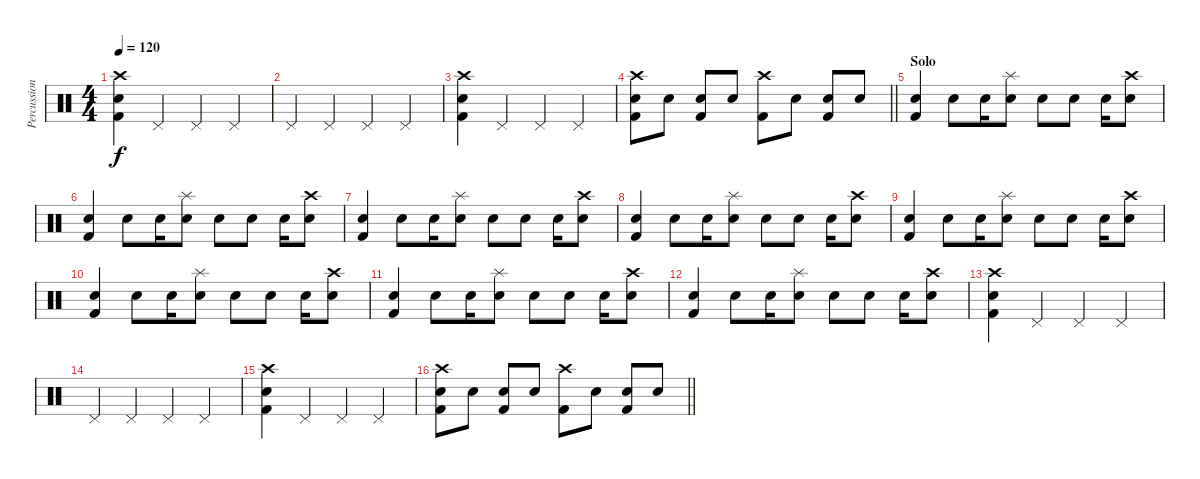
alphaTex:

\track ("Percussion" "Percussion") {instrument percussion}
\staff {score}
\articulation defaults
\ts (4 4)
\tempo 120
\clef neutral
\ks c
("Electric Snare (hit)" "Kick (hit) 2" "Crash high (hit)").4{dy f} "Pedal Hi-Hat (hit)".4 "Pedal Hi-Hat (hit)".4 "Pedal Hi-Hat (hit)".4 |
"Pedal Hi-Hat (hit)".4 "Pedal Hi-Hat (hit)".4 "Pedal Hi-Hat (hit)".4 "Pedal Hi-Hat (hit)".4 |
("Electric Snare (hit)" "Kick (hit) 2" "Crash high (hit)").4 "Pedal Hi-Hat (hit)".4 "Pedal Hi-Hat (hit)".4 "Pedal Hi-Hat (hit)".4 |
\barLineRight lightlight
("Electric Snare (hit)" "Kick (hit) 2" "Crash high (hit)").8 "Electric Snare (hit)".8 ("Electric Snare (hit)" "Kick (hit) 2").8 "Electric Snare (hit)".8 ("Kick (hit) 2" "Crash high (hit)").8 "Electric Snare (hit)".8 ("Electric Snare (hit)" "Kick (hit) 2").8 "Electric Snare (hit)".8 |
\section ("" "Solo")
("Electric Snare (hit)" "Kick (hit) 2").4 "Electric Snare (hit)".8 "Electric Snare (hit)".16 ("Electric Snare (hit)" "Splash (hit)").8 "Electric Snare (hit)".8 "Electric Snare (hit)".8 "Electric Snare (hit)".16 ("Electric Snare (hit)" "Crash high (hit)").8 |
("Electric Snare (hit)" "Kick (hit) 2").4 "Electric Snare (hit)".8 "Electric Snare (hit)".16 ("Electric Snare (hit)" "Splash (hit)").8 "Electric Snare (hit)".8 "Electric Snare (hit)".8 "Electric Snare (hit)".16 ("Electric Snare (hit)" "Crash high (hit)").8 |
("Electric Snare (hit)" "Kick (hit) 2").4 "Electric Snare (hit)".8 "Electric Snare (hit)".16 ("Electric Snare (hit)" "Splash (hit)").8 "Electric Snare (hit)".8 "Electric Snare (hit)".8 "Electric Snare (hit)".16 ("Electric Snare (hit)" "Crash high (hit)").8 |
("Electric Snare (hit)" "Kick (hit) 2").4 "Electric Snare (hit)".8 "Electric Snare (hit)".16 ("Electric Snare (hit)" "Splash (hit)").8 "Electric Snare (hit)".8 "Electric Snare (hit)".8 "Electric Snare (hit)".16 ("Electric Snare (hit)" "Crash high (hit)").8 |
("Electric Snare (hit)" "Kick (hit) 2").4 "Electric Snare (hit)".8 "Electric Snare (hit)".16 ("Electric Snare (hit)" "Splash (hit)").8 "Electric Snare (hit)".8 "Electric Snare (hit)".8 "Electric Snare (hit)".16 ("Electric Snare (hit)" "Crash high (hit)").8 |
("Electric Snare (hit)" "Kick (hit) 2").4 "Electric Snare (hit)".8 "Electric Snare (hit)".16 ("Electric Snare (hit)" "Splash (hit)").8 "Electric Snare (hit)".8 "Electric Snare (hit)".8 "Electric Snare (hit)".16 ("Electric Snare (hit)" "Crash high (hit)").8 |
("Electric Snare (hit)" "Kick (hit) 2").4 "Electric Snare (hit)".8 "Electric Snare (hit)".16 ("Electric Snare (hit)" "Splash (hit)").8 "Electric Snare (hit)".8 "Electric Snare (hit)".8 "Electric Snare (hit)".16 ("Electric Snare (hit)" "Crash high (hit)").8 |
("Electric Snare (hit)" "Kick (hit) 2").4 "Electric Snare (hit)".8 "Electric Snare (hit)".16 ("Electric Snare (hit)" "Splash (hit)").8 "Electric Snare (hit)".8 "Electric Snare (hit)".8 "Electric Snare (hit)".16 ("Electric Snare (hit)" "Crash high (hit)").8 |
("Electric Snare (hit)" "Kick (hit) 2" "Crash high (hit)").4 "Pedal Hi-Hat (hit)".4 "Pedal Hi-Hat (hit)".4 "Pedal Hi-Hat (hit)".4 |
"Pedal Hi-Hat (hit)".4 "Pedal Hi-Hat (hit)".4 "Pedal Hi-Hat (hit)".4 "Pedal Hi-Hat (hit)".4 |
("Electric Snare (hit)" "Kick (hit) 2" "Crash high (hit)").4 "Pedal Hi-Hat (hit)".4 "Pedal Hi-Hat (hit)".4 "Pedal Hi-Hat (hit)".4 |
\barLineRight lightlight
("Electric Snare (hit)" "Kick (hit) 2" "Crash high (hit)").8 "Electric Snare (hit)".8 ("Electric Snare (hit)" "Kick (hit) 2").8 "Electric Snare (hit)".8 ("Kick (hit) 2" "Crash high (hit)").8 "Electric Snare (hit)".8 ("Electric Snare (hit)" "Kick (hit) 2").8 "Electric Snare (hit)".8
